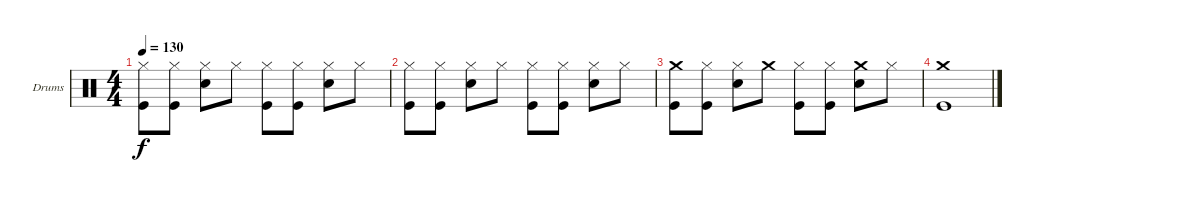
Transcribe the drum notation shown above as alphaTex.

\defaultSystemsLayout 4
\bracketExtendMode groupsimilarinstruments
\firstSystemTrackNameOrientation horizontal
\otherSystemsTrackNameOrientation horizontal
\track ("Drumkit" "Drums") {instrument percussion}
\staff {score}
\articulation defaults
\ts (4 4)
\tempo 130
\clef neutral
\ks aminor
("Kick (hit)" "Hi-Hat (closed)").8{dy f} ("Kick (hit)" "Hi-Hat (closed)").8 ("Snare (hit) 2" "Hi-Hat (closed)").8 "Hi-Hat (closed)".8 ("Kick (hit)" "Hi-Hat (closed)").8 ("Kick (hit)" "Hi-Hat (closed)").8 ("Snare (hit) 2" "Hi-Hat (closed)").8 "Hi-Hat (closed)".8 |
("Kick (hit)" "Hi-Hat (closed)").8 ("Kick (hit)" "Hi-Hat (closed)").8 ("Snare (hit) 2" "Hi-Hat (closed)").8 "Hi-Hat (closed)".8 ("Kick (hit)" "Hi-Hat (closed)").8 ("Kick (hit)" "Hi-Hat (closed)").8 ("Snare (hit) 2" "Hi-Hat (closed)").8 "Hi-Hat (closed)".8 |
("Kick (hit)" "Crash medium (hit)").8 ("Kick (hit)" "Hi-Hat (closed)").8 ("Snare (hit) 2" "Hi-Hat (closed)").8 "Crash medium (hit)".8 ("Kick (hit)" "Hi-Hat (closed)").8 ("Kick (hit)" "Hi-Hat (closed)").8 ("Snare (hit) 2" "Crash medium (hit)").8 "Hi-Hat (closed)".8 |
("Kick (hit)" "Crash medium (hit)").1
